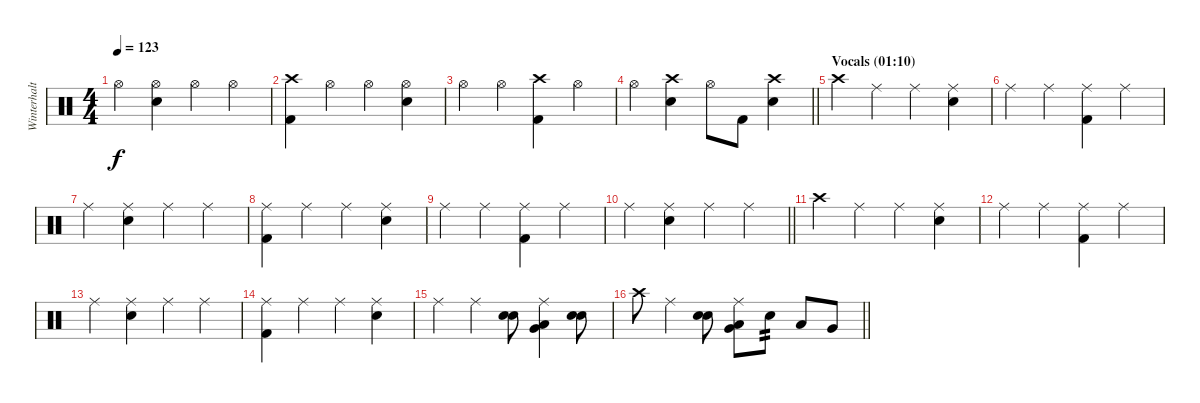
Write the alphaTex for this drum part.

\track ("Winterhalten" "Winterhalt") {instrument percussion}
\staff {score}
\articulation defaults
\ts (4 4)
\tempo 123
\clef neutral
\ks c "Hi-Hat (open)".4{dy f}
("Hi-Hat (open)" "Snare (hit) 2").4 "Hi-Hat (open)".4 "Hi-Hat (open)".4 |
("Crash high (hit)" "Kick (hit) 2").4 "Hi-Hat (open)".4 "Hi-Hat (open)".4 ("Hi-Hat (open)" "Snare (hit) 2").4 |
"Hi-Hat (open)".4 "Hi-Hat (open)".4 ("Crash high (hit)" "Kick (hit) 2").4 "Hi-Hat (open)".4 |
\barLineRight lightlight "Hi-Hat (open)".4
("Crash high (hit)" "Snare (hit) 2").4 "Hi-Hat (open)".8 "Kick (hit) 2".8 ("Crash high (hit)" "Snare (hit) 2").4 |
\section ("" "Vocals (01:10)")
"Crash high (hit)".4 "Ride (middle)".4 "Ride (middle)".4 ("Ride (middle)" "Snare (hit) 2").4 |
"Ride (middle)".4 "Ride (middle)".4 ("Ride (middle)" "Kick (hit) 2").4 "Ride (middle)".4 |
"Ride (middle)".4 ("Ride (middle)" "Snare (hit) 2").4 "Ride (middle)".4 "Ride (middle)".4 |
("Ride (middle)" "Kick (hit) 2").4 "Ride (middle)".4 "Ride (middle)".4 ("Ride (middle)" "Snare (hit) 2").4 |
"Ride (middle)".4 "Ride (middle)".4 ("Ride (middle)" "Kick (hit) 2").4 "Ride (middle)".4 |
\barLineRight lightlight "Ride (middle)".4
("Ride (middle)" "Snare (hit) 2").4 "Ride (middle)".4 "Ride (middle)".4 |
"Crash high (hit)".4 "Ride (middle)".4 "Ride (middle)".4 ("Ride (middle)" "Snare (hit) 2").4 |
"Ride (middle)".4 "Ride (middle)".4 ("Ride (middle)" "Kick (hit) 2").4 "Ride (middle)".4 |
"Ride (middle)".4 ("Ride (middle)" "Snare (hit) 2").4 "Ride (middle)".4 "Ride (middle)".4 |
("Ride (middle)" "Kick (hit) 2").4 "Ride (middle)".4 "Ride (middle)".4 ("Ride (middle)" "Snare (hit) 2").4 |
"Ride (middle)".4 "Ride (middle)".4 ("Snare (hit) 2" "Electric Snare (hit)").8 ("Ride (middle)" "Low Tom (hit)" "Very Low Tom (hit)").4 ("Snare (hit) 2" "Electric Snare (hit)").8 |
\barLineRight lightlight "Crash high (hit)".8 "Ride (middle)".4
("Snare (hit) 2" "Electric Snare (hit)").8 ("Ride (middle)" "Low Tom (hit)" "Very Low Tom (hit)").8 "Snare (hit) 2".8{tp 2} "Low Tom (hit)".8 "Very Low Tom (hit)".8
